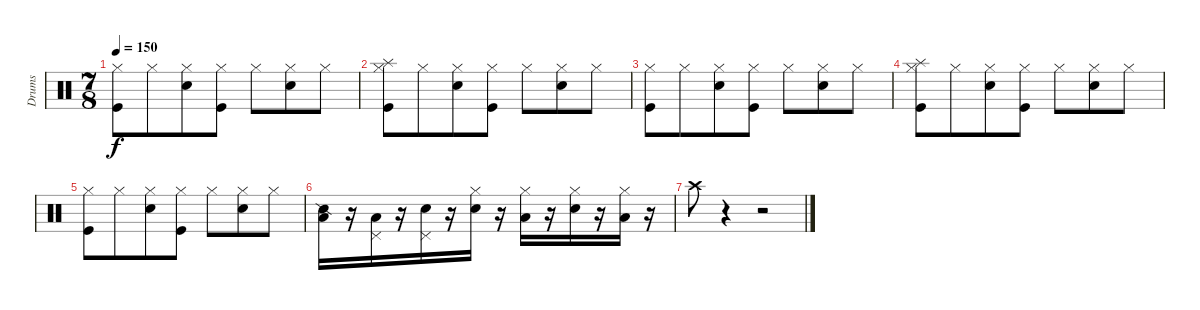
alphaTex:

\track ("Drums" "Drums") {instrument percussion}
\staff {score}
\articulation defaults
\ts (7 8)
\tempo 150
\clef neutral
\ks c
("Kick (hit)" "Hi-Hat (closed)").8{dy f} "Hi-Hat (closed)".8 ("Snare (hit) 2" "Hi-Hat (closed)").8 ("Kick (hit)" "Hi-Hat (closed)").8 "Hi-Hat (closed)".8 ("Snare (hit) 2" "Hi-Hat (closed)").8 "Hi-Hat (closed)".8 |
("Splash (hit)" "Kick (hit)" "Hi-Hat (closed)").8 "Hi-Hat (closed)".8 ("Snare (hit) 2" "Hi-Hat (closed)").8 ("Kick (hit)" "Hi-Hat (closed)").8 "Hi-Hat (closed)".8 ("Snare (hit) 2" "Hi-Hat (closed)").8 "Hi-Hat (closed)".8 |
("Kick (hit)" "Hi-Hat (closed)").8 "Hi-Hat (closed)".8 ("Snare (hit) 2" "Hi-Hat (closed)").8 ("Kick (hit)" "Hi-Hat (closed)").8 "Hi-Hat (closed)".8 ("Snare (hit) 2" "Hi-Hat (closed)").8 "Hi-Hat (closed)".8 |
("Splash (hit)" "Kick (hit)" "Hi-Hat (closed)").8 "Hi-Hat (closed)".8 ("Snare (hit) 2" "Hi-Hat (closed)").8 ("Kick (hit)" "Hi-Hat (closed)").8 "Hi-Hat (closed)".8 ("Snare (hit) 2" "Hi-Hat (closed)").8 "Hi-Hat (closed)".8 |
("Kick (hit)" "Hi-Hat (closed)").8 "Hi-Hat (closed)".8 ("Snare (hit) 2" "Hi-Hat (closed)").8 ("Kick (hit)" "Hi-Hat (closed)").8 "Hi-Hat (closed)".8 ("Snare (hit) 2" "Hi-Hat (closed)").8 "Hi-Hat (closed)".8 |
("Low Tom (hit)" "Snare (side stick) 2").16 r.16 ("Pedal Hi-Hat (hit)" "Low Tom (hit)").16 r.16 ("Pedal Hi-Hat (hit)" "Snare (hit) 2").16 r.16 ("Hi-Hat (closed)" "Snare (hit) 2").16 r.16 ("Hi-Hat (closed)" "Low Tom (hit)").16 r.16 ("Hi-Hat (closed)" "Snare (hit) 2").16 r.16 ("Hi-Hat (closed)" "Low Tom (hit)").16 r.16 |
"Crash high (hit)".8 r.4 r.2
